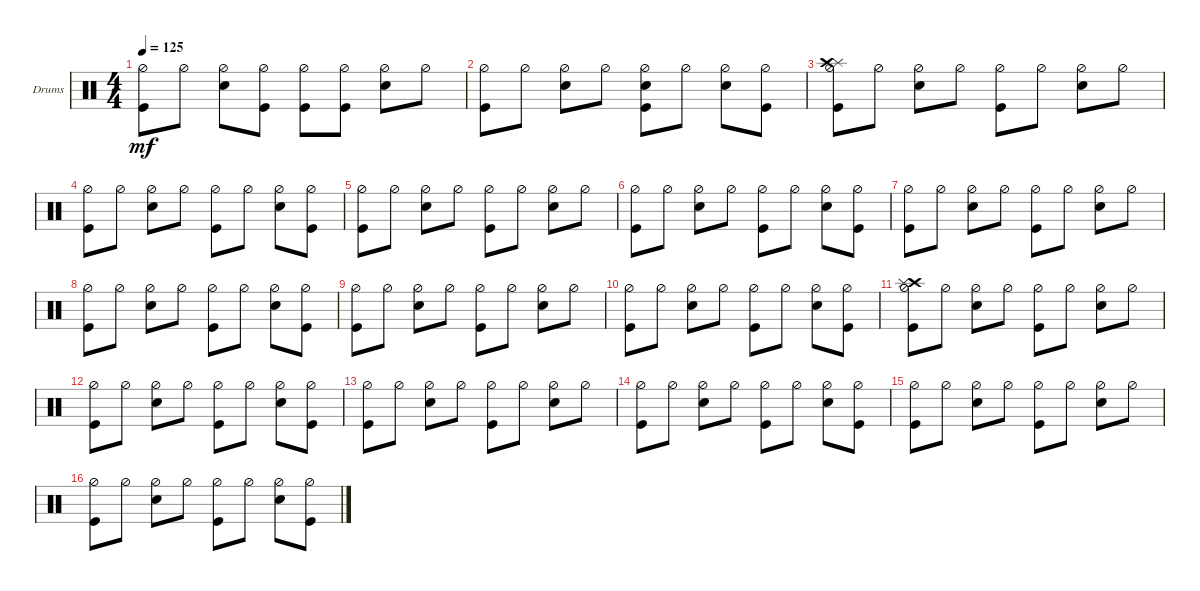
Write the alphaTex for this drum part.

\defaultSystemsLayout 4
\bracketExtendMode groupsimilarinstruments
\firstSystemTrackNameOrientation horizontal
\otherSystemsTrackNameOrientation horizontal
\track ("Drumkit" "Drums") {instrument percussion}
\staff {score}
\articulation defaults
\ts (4 4)
\tempo 125
\clef neutral
\ks c
("Kick (hit)" "Hi-Hat (half)").8{dy mf} "Hi-Hat (half)".8 ("Hi-Hat (half)" "Snare (hit) 2").8 ("Hi-Hat (half)" "Kick (hit)").8 ("Kick (hit)" "Hi-Hat (half)").8 ("Hi-Hat (half)" "Kick (hit)").8 ("Hi-Hat (half)" "Snare (hit) 2").8 "Hi-Hat (half)".8 |
("Kick (hit)" "Hi-Hat (half)").8 "Hi-Hat (half)".8 ("Hi-Hat (half)" "Snare (hit) 2").8 "Hi-Hat (half)".8 ("Kick (hit)" "Hi-Hat (half)" "Snare (hit) 2").8 "Hi-Hat (half)".8 ("Hi-Hat (half)" "Snare (hit) 2").8 ("Hi-Hat (half)" "Kick (hit)").8 |
("Kick (hit)" "Hi-Hat (half)" "Splash (hit)" "Crash high (hit)").8 "Hi-Hat (half)".8 ("Hi-Hat (half)" "Snare (hit) 2").8 "Hi-Hat (half)".8 ("Kick (hit)" "Hi-Hat (half)").8 "Hi-Hat (half)".8 ("Hi-Hat (half)" "Snare (hit) 2").8 "Hi-Hat (half)".8 |
("Kick (hit)" "Hi-Hat (half)").8 "Hi-Hat (half)".8 ("Hi-Hat (half)" "Snare (hit) 2").8 "Hi-Hat (half)".8 ("Kick (hit)" "Hi-Hat (half)").8 "Hi-Hat (half)".8 ("Hi-Hat (half)" "Snare (hit) 2").8 ("Hi-Hat (half)" "Kick (hit)").8 |
("Kick (hit)" "Hi-Hat (half)").8 "Hi-Hat (half)".8 ("Hi-Hat (half)" "Snare (hit) 2").8 "Hi-Hat (half)".8 ("Kick (hit)" "Hi-Hat (half)").8 "Hi-Hat (half)".8 ("Hi-Hat (half)" "Snare (hit) 2").8 "Hi-Hat (half)".8 |
("Kick (hit)" "Hi-Hat (half)").8 "Hi-Hat (half)".8 ("Hi-Hat (half)" "Snare (hit) 2").8 "Hi-Hat (half)".8 ("Kick (hit)" "Hi-Hat (half)").8 "Hi-Hat (half)".8 ("Hi-Hat (half)" "Snare (hit) 2").8 ("Hi-Hat (half)" "Kick (hit)").8 |
("Kick (hit)" "Hi-Hat (half)").8 "Hi-Hat (half)".8 ("Hi-Hat (half)" "Snare (hit) 2").8 "Hi-Hat (half)".8 ("Kick (hit)" "Hi-Hat (half)").8 "Hi-Hat (half)".8 ("Hi-Hat (half)" "Snare (hit) 2").8 "Hi-Hat (half)".8 |
("Kick (hit)" "Hi-Hat (half)").8 "Hi-Hat (half)".8 ("Hi-Hat (half)" "Snare (hit) 2").8 "Hi-Hat (half)".8 ("Kick (hit)" "Hi-Hat (half)").8 "Hi-Hat (half)".8 ("Hi-Hat (half)" "Snare (hit) 2").8 ("Hi-Hat (half)" "Kick (hit)").8 |
("Kick (hit)" "Hi-Hat (half)").8 "Hi-Hat (half)".8 ("Hi-Hat (half)" "Snare (hit) 2").8 "Hi-Hat (half)".8 ("Kick (hit)" "Hi-Hat (half)").8 "Hi-Hat (half)".8 ("Hi-Hat (half)" "Snare (hit) 2").8 "Hi-Hat (half)".8 |
("Kick (hit)" "Hi-Hat (half)").8 "Hi-Hat (half)".8 ("Hi-Hat (half)" "Snare (hit) 2").8 "Hi-Hat (half)".8 ("Kick (hit)" "Hi-Hat (half)").8 "Hi-Hat (half)".8 ("Hi-Hat (half)" "Snare (hit) 2").8 ("Hi-Hat (half)" "Kick (hit)").8 |
("Kick (hit)" "Hi-Hat (half)" "Crash high (hit)" "Splash (hit)").8 "Hi-Hat (half)".8 ("Hi-Hat (half)" "Snare (hit) 2").8 "Hi-Hat (half)".8 ("Kick (hit)" "Hi-Hat (half)").8 "Hi-Hat (half)".8 ("Hi-Hat (half)" "Snare (hit) 2").8 "Hi-Hat (half)".8 |
("Kick (hit)" "Hi-Hat (half)").8 "Hi-Hat (half)".8 ("Hi-Hat (half)" "Snare (hit) 2").8 "Hi-Hat (half)".8 ("Kick (hit)" "Hi-Hat (half)").8 "Hi-Hat (half)".8 ("Hi-Hat (half)" "Snare (hit) 2").8 ("Hi-Hat (half)" "Kick (hit)").8 |
("Kick (hit)" "Hi-Hat (half)").8 "Hi-Hat (half)".8 ("Hi-Hat (half)" "Snare (hit) 2").8 "Hi-Hat (half)".8 ("Kick (hit)" "Hi-Hat (half)").8 "Hi-Hat (half)".8 ("Hi-Hat (half)" "Snare (hit) 2").8 "Hi-Hat (half)".8 |
("Kick (hit)" "Hi-Hat (half)").8 "Hi-Hat (half)".8 ("Hi-Hat (half)" "Snare (hit) 2").8 "Hi-Hat (half)".8 ("Kick (hit)" "Hi-Hat (half)").8 "Hi-Hat (half)".8 ("Hi-Hat (half)" "Snare (hit) 2").8 ("Hi-Hat (half)" "Kick (hit)").8 |
("Kick (hit)" "Hi-Hat (half)").8 "Hi-Hat (half)".8 ("Hi-Hat (half)" "Snare (hit) 2").8 "Hi-Hat (half)".8 ("Kick (hit)" "Hi-Hat (half)").8 "Hi-Hat (half)".8 ("Hi-Hat (half)" "Snare (hit) 2").8 "Hi-Hat (half)".8 |
("Kick (hit)" "Hi-Hat (half)").8 "Hi-Hat (half)".8 ("Hi-Hat (half)" "Snare (hit) 2").8 "Hi-Hat (half)".8 ("Kick (hit)" "Hi-Hat (half)").8 "Hi-Hat (half)".8 ("Hi-Hat (half)" "Snare (hit) 2").8 ("Hi-Hat (half)" "Kick (hit)").8
